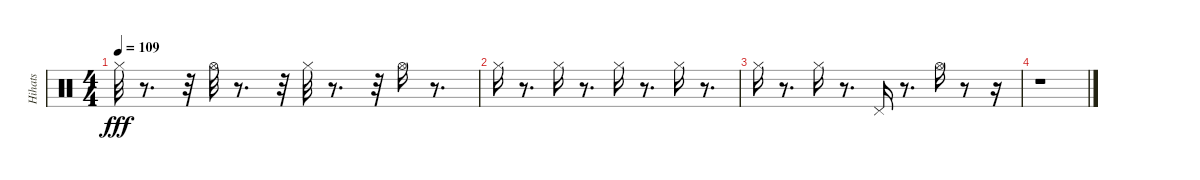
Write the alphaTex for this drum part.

\track ("Hihats          " "Hihats    ") {instrument percussion}
\staff {score}
\articulation defaults
\ts (4 4)
\tempo 109
\clef neutral
\ks c "Hi-Hat (closed)".32{dy fff}
r.8{d} r.32 "Hi-Hat (open)".32 r.8{d} r.32 "Hi-Hat (closed)".32 r.8{d} r.32 "Hi-Hat (open)".16 r.8{d} |
"Hi-Hat (closed)".16 r.8{d} "Hi-Hat (closed)".16 r.8{d} "Hi-Hat (closed)".16 r.8{d} "Hi-Hat (closed)".16 r.8{d} |
"Hi-Hat (closed)".16 r.8{d} "Hi-Hat (closed)".16 r.8{d} "Pedal Hi-Hat (hit)".16 r.8{d} "Hi-Hat (open)".16 r.8 r.16 |
r.1
